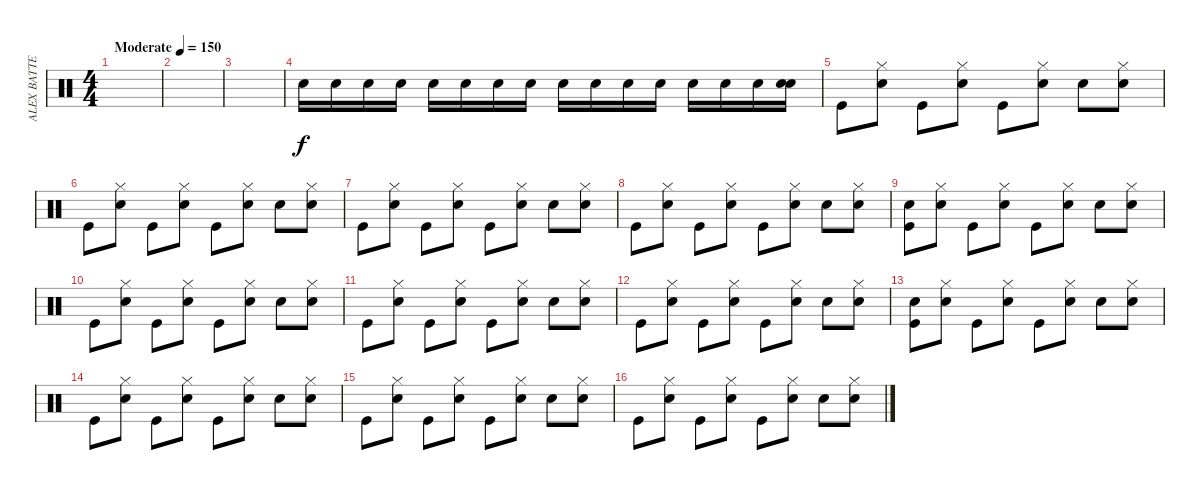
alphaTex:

\track ("ALEX BATTERIE" "ALEX BATTE") {instrument percussion}
\staff {score}
\articulation defaults
\ts (4 4)
\tempo (150 "Moderate")
\clef neutral
\ks c
|
|
|
"Electric Snare (hit)".16 "Electric Snare (hit)".16 "Electric Snare (hit)".16 "Electric Snare (hit)".16 "Electric Snare (hit)".16 "Electric Snare (hit)".16 "Electric Snare (hit)".16 "Electric Snare (hit)".16 "Electric Snare (hit)".16 "Electric Snare (hit)".16 "Electric Snare (hit)".16 "Electric Snare (hit)".16 "Electric Snare (hit)".16 "Electric Snare (hit)".16 "Electric Snare (hit)".16 ("Hand Clap (hit)" "Electric Snare (hit)").16 |
"Kick (hit)".8 ("Hi-Hat (closed)" "Electric Snare (hit)").8 "Kick (hit)".8 ("Hi-Hat (closed)" "Electric Snare (hit)").8 "Kick (hit)".8 ("Hi-Hat (closed)" "Electric Snare (hit)").8 "Metronome (bell)".8 ("Hi-Hat (closed)" "Electric Snare (hit)").8 |
"Kick (hit)".8 ("Hi-Hat (closed)" "Electric Snare (hit)").8 "Kick (hit)".8 ("Hi-Hat (closed)" "Electric Snare (hit)").8 "Kick (hit)".8 ("Hi-Hat (closed)" "Electric Snare (hit)").8 "Metronome (bell)".8 ("Hi-Hat (closed)" "Electric Snare (hit)").8 |
"Kick (hit)".8 ("Hi-Hat (closed)" "Electric Snare (hit)").8 "Kick (hit)".8 ("Hi-Hat (closed)" "Electric Snare (hit)").8 "Kick (hit)".8 ("Hi-Hat (closed)" "Electric Snare (hit)").8 "Metronome (bell)".8 ("Hi-Hat (closed)" "Electric Snare (hit)").8 |
"Kick (hit)".8 ("Hi-Hat (closed)" "Electric Snare (hit)").8 "Kick (hit)".8 ("Hi-Hat (closed)" "Electric Snare (hit)").8 "Kick (hit)".8 ("Hi-Hat (closed)" "Electric Snare (hit)").8 "Metronome (bell)".8 ("Hi-Hat (closed)" "Electric Snare (hit)").8 |
("Hand Clap (hit)" "Kick (hit)").8 ("Hi-Hat (closed)" "Electric Snare (hit)").8 "Kick (hit)".8 ("Hi-Hat (closed)" "Electric Snare (hit)").8 "Kick (hit)".8 ("Hi-Hat (closed)" "Electric Snare (hit)").8 "Metronome (bell)".8 ("Hi-Hat (closed)" "Electric Snare (hit)").8 |
"Kick (hit)".8 ("Hi-Hat (closed)" "Electric Snare (hit)").8 "Kick (hit)".8 ("Hi-Hat (closed)" "Electric Snare (hit)").8 "Kick (hit)".8 ("Hi-Hat (closed)" "Electric Snare (hit)").8 "Metronome (bell)".8 ("Hi-Hat (closed)" "Electric Snare (hit)").8 |
"Kick (hit)".8 ("Hi-Hat (closed)" "Electric Snare (hit)").8 "Kick (hit)".8 ("Hi-Hat (closed)" "Electric Snare (hit)").8 "Kick (hit)".8 ("Hi-Hat (closed)" "Electric Snare (hit)").8 "Metronome (bell)".8 ("Hi-Hat (closed)" "Electric Snare (hit)").8 |
"Kick (hit)".8 ("Hi-Hat (closed)" "Electric Snare (hit)").8 "Kick (hit)".8 ("Hi-Hat (closed)" "Electric Snare (hit)").8 "Kick (hit)".8 ("Hi-Hat (closed)" "Electric Snare (hit)").8 "Metronome (bell)".8 ("Hi-Hat (closed)" "Electric Snare (hit)").8 |
("Hand Clap (hit)" "Kick (hit)").8 ("Hi-Hat (closed)" "Electric Snare (hit)").8 "Kick (hit)".8 ("Hi-Hat (closed)" "Electric Snare (hit)").8 "Kick (hit)".8 ("Hi-Hat (closed)" "Electric Snare (hit)").8 "Metronome (bell)".8 ("Hi-Hat (closed)" "Electric Snare (hit)").8 |
"Kick (hit)".8 ("Hi-Hat (closed)" "Electric Snare (hit)").8 "Kick (hit)".8 ("Hi-Hat (closed)" "Electric Snare (hit)").8 "Kick (hit)".8 ("Hi-Hat (closed)" "Electric Snare (hit)").8 "Metronome (bell)".8 ("Hi-Hat (closed)" "Electric Snare (hit)").8 |
"Kick (hit)".8 ("Hi-Hat (closed)" "Electric Snare (hit)").8 "Kick (hit)".8 ("Hi-Hat (closed)" "Electric Snare (hit)").8 "Kick (hit)".8 ("Hi-Hat (closed)" "Electric Snare (hit)").8 "Metronome (bell)".8 ("Hi-Hat (closed)" "Electric Snare (hit)").8 |
"Kick (hit)".8 ("Hi-Hat (closed)" "Electric Snare (hit)").8 "Kick (hit)".8 ("Hi-Hat (closed)" "Electric Snare (hit)").8 "Kick (hit)".8 ("Hi-Hat (closed)" "Electric Snare (hit)").8 "Metronome (bell)".8 ("Hi-Hat (closed)" "Electric Snare (hit)").8
